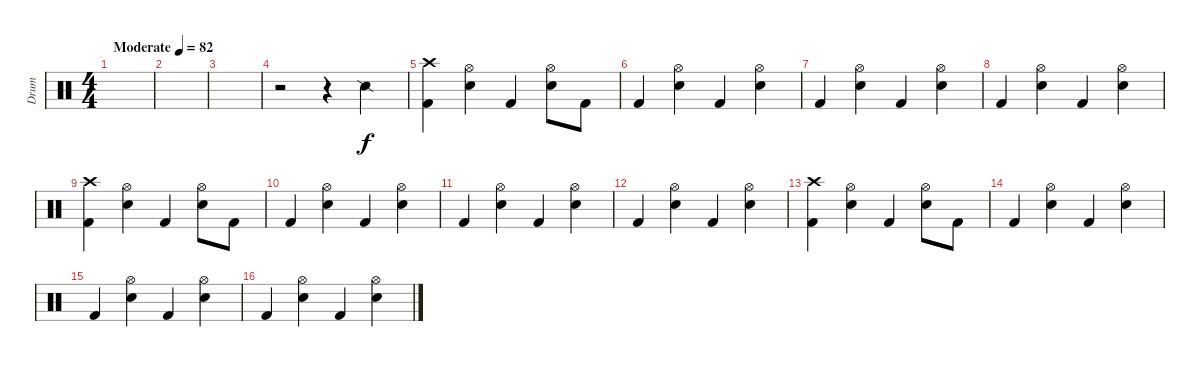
\track ("Drum" "Drum") {instrument percussion}
\staff {score}
\articulation defaults
\ts (4 4)
\tempo (82 "Moderate")
\clef neutral
\ks c
|
|
|
r.2 r.4 "Snare (side stick) 2".4 |
("Crash high (hit)" "Kick (hit) 2").4 ("Hi-Hat (open)" "Snare (hit) 2").4 "Kick (hit) 2".4 ("Hi-Hat (open)" "Snare (hit) 2").8 "Kick (hit) 2".8 |
"Kick (hit) 2".4 ("Hi-Hat (open)" "Snare (hit) 2").4 "Kick (hit) 2".4 ("Hi-Hat (open)" "Snare (hit) 2").4 |
"Kick (hit) 2".4 ("Hi-Hat (open)" "Snare (hit) 2").4 "Kick (hit) 2".4 ("Hi-Hat (open)" "Snare (hit) 2").4 |
"Kick (hit) 2".4 ("Hi-Hat (open)" "Snare (hit) 2").4 "Kick (hit) 2".4 ("Hi-Hat (open)" "Snare (hit) 2").4 |
("Crash high (hit)" "Kick (hit) 2").4 ("Hi-Hat (open)" "Snare (hit) 2").4 "Kick (hit) 2".4 ("Hi-Hat (open)" "Snare (hit) 2").8 "Kick (hit) 2".8 |
"Kick (hit) 2".4 ("Hi-Hat (open)" "Snare (hit) 2").4 "Kick (hit) 2".4 ("Hi-Hat (open)" "Snare (hit) 2").4 |
"Kick (hit) 2".4 ("Hi-Hat (open)" "Snare (hit) 2").4 "Kick (hit) 2".4 ("Hi-Hat (open)" "Snare (hit) 2").4 |
"Kick (hit) 2".4 ("Hi-Hat (open)" "Snare (hit) 2").4 "Kick (hit) 2".4 ("Hi-Hat (open)" "Snare (hit) 2").4 |
("Crash high (hit)" "Kick (hit) 2").4 ("Hi-Hat (open)" "Snare (hit) 2").4 "Kick (hit) 2".4 ("Hi-Hat (open)" "Snare (hit) 2").8 "Kick (hit) 2".8 |
"Kick (hit) 2".4 ("Hi-Hat (open)" "Snare (hit) 2").4 "Kick (hit) 2".4 ("Hi-Hat (open)" "Snare (hit) 2").4 |
"Kick (hit) 2".4 ("Hi-Hat (open)" "Snare (hit) 2").4 "Kick (hit) 2".4 ("Hi-Hat (open)" "Snare (hit) 2").4 |
"Kick (hit) 2".4 ("Hi-Hat (open)" "Snare (hit) 2").4 "Kick (hit) 2".4 ("Hi-Hat (open)" "Snare (hit) 2").4
